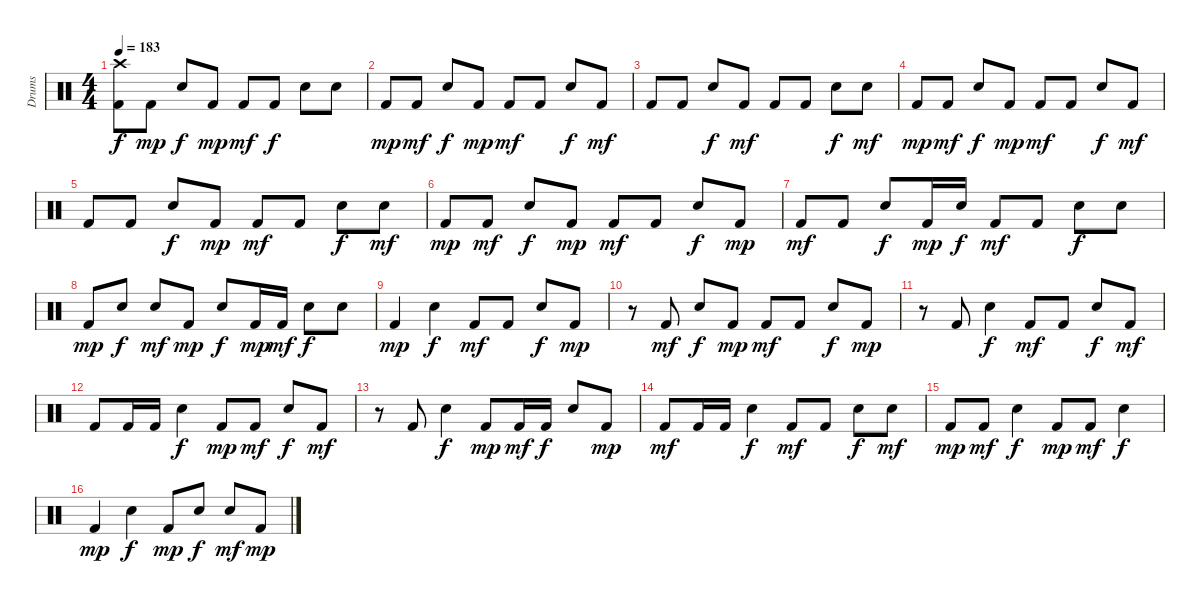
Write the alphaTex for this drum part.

\track ("Drums" "Drums") {instrument percussion}
\staff {score}
\articulation defaults
\ts (4 4)
\tempo 183
\clef neutral
\ks c
("Kick (hit) 2" "Crash high (hit)").8{dy f} "Kick (hit) 2".8{dy mp} "Snare (hit) 2".8{dy f} "Kick (hit) 2".8{dy mp} "Kick (hit) 2".8{dy mf} "Kick (hit) 2".8{dy f} "Snare (hit) 2".8 "Snare (hit) 2".8 |
"Kick (hit) 2".8{dy mp} "Kick (hit) 2".8{dy mf} "Snare (hit) 2".8{dy f} "Kick (hit) 2".8{dy mp} "Kick (hit) 2".8{dy mf} "Kick (hit) 2".8 "Snare (hit) 2".8{dy f} "Kick (hit) 2".8{dy mf} |
"Kick (hit) 2".8 "Kick (hit) 2".8 "Snare (hit) 2".8{dy f} "Kick (hit) 2".8{dy mf} "Kick (hit) 2".8 "Kick (hit) 2".8 "Snare (hit) 2".8{dy f} "Snare (hit) 2".8{dy mf} |
"Kick (hit) 2".8{dy mp} "Kick (hit) 2".8{dy mf} "Snare (hit) 2".8{dy f} "Kick (hit) 2".8{dy mp} "Kick (hit) 2".8{dy mf} "Kick (hit) 2".8 "Snare (hit) 2".8{dy f} "Kick (hit) 2".8{dy mf} |
"Kick (hit) 2".8 "Kick (hit) 2".8 "Snare (hit) 2".8{dy f} "Kick (hit) 2".8{dy mp} "Kick (hit) 2".8{dy mf} "Kick (hit) 2".8 "Snare (hit) 2".8{dy f} "Snare (hit) 2".8{dy mf} |
"Kick (hit) 2".8{dy mp} "Kick (hit) 2".8{dy mf} "Snare (hit) 2".8{dy f} "Kick (hit) 2".8{dy mp} "Kick (hit) 2".8{dy mf} "Kick (hit) 2".8 "Snare (hit) 2".8{dy f} "Kick (hit) 2".8{dy mp} |
"Kick (hit) 2".8{dy mf} "Kick (hit) 2".8 "Snare (hit) 2".8{dy f} "Kick (hit) 2".16{dy mp} "Snare (hit) 2".16{dy f} "Kick (hit) 2".8{dy mf} "Kick (hit) 2".8 "Snare (hit) 2".8{dy f} "Snare (hit) 2".8 |
"Kick (hit) 2".8{dy mp} "Snare (hit) 2".8{dy f} "Snare (hit) 2".8{dy mf} "Kick (hit) 2".8{dy mp} "Snare (hit) 2".8{dy f} "Kick (hit) 2".16{dy mp} "Kick (hit) 2".16{dy mf} "Snare (hit) 2".8{dy f} "Snare (hit) 2".8 |
"Kick (hit) 2".4{dy mp} "Snare (hit) 2".4{dy f} "Kick (hit) 2".8{dy mf} "Kick (hit) 2".8 "Snare (hit) 2".8{dy f} "Kick (hit) 2".8{dy mp} |
r.8 "Kick (hit) 2".8{dy mf} "Snare (hit) 2".8{dy f} "Kick (hit) 2".8{dy mp} "Kick (hit) 2".8{dy mf} "Kick (hit) 2".8 "Snare (hit) 2".8{dy f} "Kick (hit) 2".8{dy mp} |
r.8 "Kick (hit) 2".8 "Snare (hit) 2".4{dy f} "Kick (hit) 2".8{dy mf} "Kick (hit) 2".8 "Snare (hit) 2".8{dy f} "Kick (hit) 2".8{dy mf} |
"Kick (hit) 2".8 "Kick (hit) 2".16 "Kick (hit) 2".16 "Snare (hit) 2".4{dy f} "Kick (hit) 2".8{dy mp} "Kick (hit) 2".8{dy mf} "Snare (hit) 2".8{dy f} "Kick (hit) 2".8{dy mf} |
r.8 "Kick (hit) 2".8 "Snare (hit) 2".4{dy f} "Kick (hit) 2".8{dy mp} "Kick (hit) 2".16{dy mf} "Kick (hit) 2".16{dy f} "Snare (hit) 2".8 "Kick (hit) 2".8{dy mp} |
"Kick (hit) 2".8{dy mf} "Kick (hit) 2".16 "Kick (hit) 2".16 "Snare (hit) 2".4{dy f} "Kick (hit) 2".8{dy mf} "Kick (hit) 2".8 "Snare (hit) 2".8{dy f} "Snare (hit) 2".8{dy mf} |
"Kick (hit) 2".8{dy mp} "Kick (hit) 2".8{dy mf} "Snare (hit) 2".4{dy f} "Kick (hit) 2".8{dy mp} "Kick (hit) 2".8{dy mf} "Snare (hit) 2".4{dy f} |
"Kick (hit) 2".4{dy mp} "Snare (hit) 2".4{dy f} "Kick (hit) 2".8{dy mp} "Snare (hit) 2".8{dy f} "Snare (hit) 2".8{dy mf} "Kick (hit) 2".8{dy mp}
